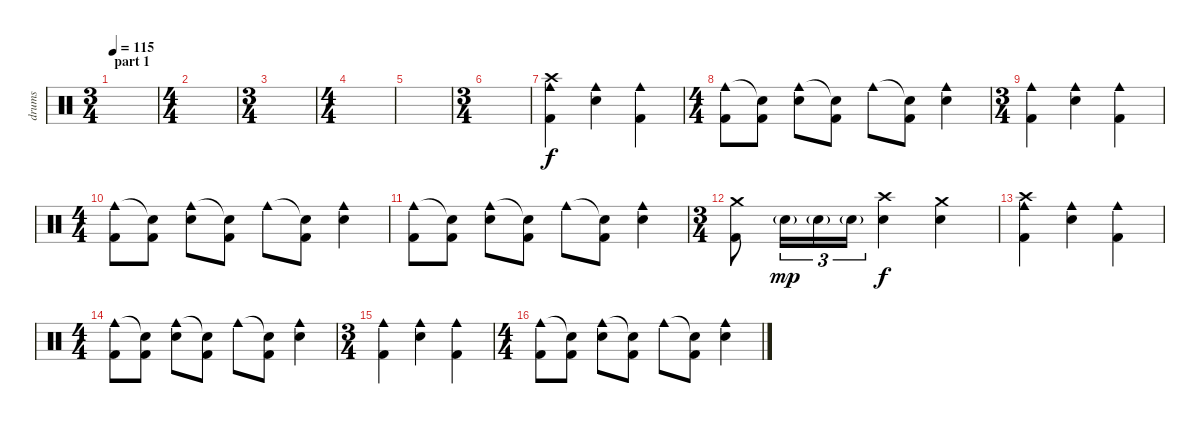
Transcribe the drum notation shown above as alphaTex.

\track ("drums" "drums") {instrument percussion}
\staff {score}
\articulation defaults
\ts (3 4)
\section ("" "part 1")
\tempo 115
\clef neutral
\ks c
|
\ts (4 4)
|
\ts (3 4)
|
\ts (4 4)
|
|
\ts (3 4)
|
("Cowbell medium (hit)" "Crash high (hit)" "Kick (hit) 2").4 ("Cowbell medium (hit)" "Electric Snare (hit)").4 ("Cowbell medium (hit)" "Kick (hit) 2").4 |
\ts (4 4)
("Cowbell medium (hit)" "Kick (hit) 2").8 ("Snare (hit)"{t} "Kick (hit) 2").8 ("Cowbell medium (hit)" "Electric Snare (hit)").8 ("Snare (hit)"{t} "Kick (hit) 2").8 "Cowbell medium (hit)".8 ("Snare (hit)"{t} "Kick (hit) 2").8 ("Cowbell medium (hit)" "Electric Snare (hit)").4 |
\ts (3 4)
("Cowbell medium (hit)" "Kick (hit) 2").4 ("Cowbell medium (hit)" "Electric Snare (hit)").4 ("Cowbell medium (hit)" "Kick (hit) 2").4 |
\ts (4 4)
("Cowbell medium (hit)" "Kick (hit) 2").8 ("Snare (hit)"{t} "Kick (hit) 2").8 ("Cowbell medium (hit)" "Electric Snare (hit)").8 ("Snare (hit)"{t} "Kick (hit) 2").8 "Cowbell medium (hit)".8 ("Snare (hit)"{t} "Kick (hit) 2").8 ("Cowbell medium (hit)" "Electric Snare (hit)").4 |
("Cowbell medium (hit)" "Kick (hit) 2").8 ("Snare (hit)"{t} "Kick (hit) 2").8 ("Cowbell medium (hit)" "Electric Snare (hit)").8 ("Snare (hit)"{t} "Kick (hit) 2").8 "Cowbell medium (hit)".8 ("Snare (hit)"{t} "Kick (hit) 2").8 ("Cowbell medium (hit)" "Electric Snare (hit)").4 |
\ts (3 4)
("Crash medium (hit)" "Kick (hit) 2").8 "Electric Snare (hit)"{g}.16{tu (3 2) dy mp} "Electric Snare (hit)"{g}.16{tu (3 2)} "Electric Snare (hit)"{g}.16{tu (3 2)} ("Crash high (hit)" "Electric Snare (hit)").4{dy f} ("Crash medium (hit)" "Electric Snare (hit)").4 |
("Cowbell medium (hit)" "Crash high (hit)" "Kick (hit) 2").4 ("Cowbell medium (hit)" "Electric Snare (hit)").4 ("Cowbell medium (hit)" "Kick (hit) 2").4 |
\ts (4 4)
("Cowbell medium (hit)" "Kick (hit) 2").8 ("Snare (hit)"{t} "Kick (hit) 2").8 ("Cowbell medium (hit)" "Electric Snare (hit)").8 ("Snare (hit)"{t} "Kick (hit) 2").8 "Cowbell medium (hit)".8 ("Snare (hit)"{t} "Kick (hit) 2").8 ("Cowbell medium (hit)" "Electric Snare (hit)").4 |
\ts (3 4)
("Cowbell medium (hit)" "Kick (hit) 2").4 ("Cowbell medium (hit)" "Electric Snare (hit)").4 ("Cowbell medium (hit)" "Kick (hit) 2").4 |
\ts (4 4)
("Cowbell medium (hit)" "Kick (hit) 2").8 ("Snare (hit)"{t} "Kick (hit) 2").8 ("Cowbell medium (hit)" "Electric Snare (hit)").8 ("Snare (hit)"{t} "Kick (hit) 2").8 "Cowbell medium (hit)".8 ("Snare (hit)"{t} "Kick (hit) 2").8 ("Cowbell medium (hit)" "Electric Snare (hit)").4
